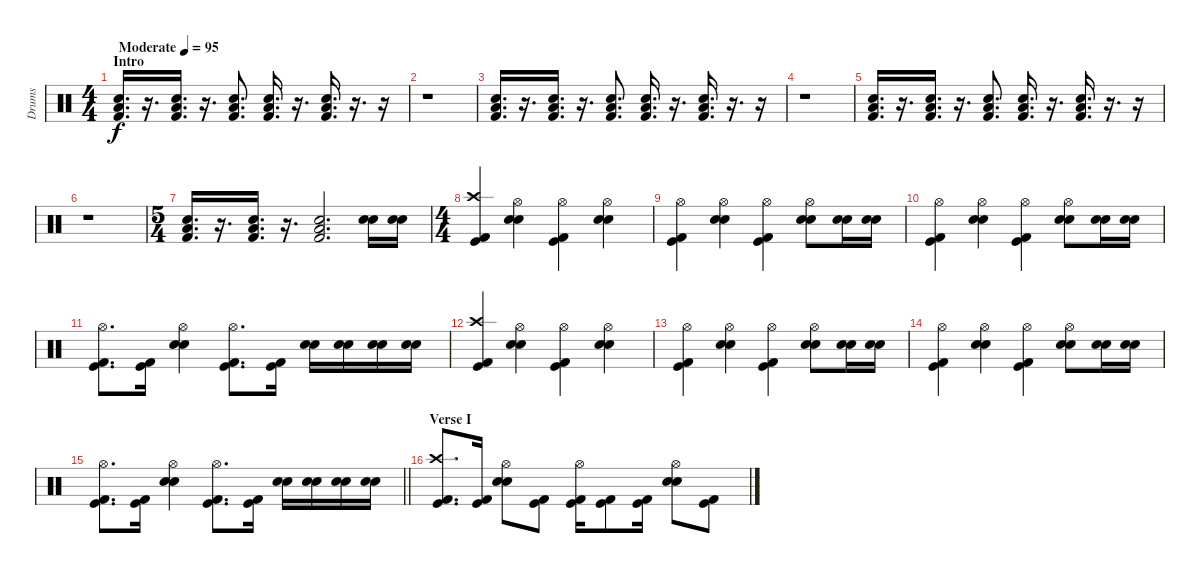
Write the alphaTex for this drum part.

\track ("Drums" "Drums") {instrument percussion}
\staff {score}
\articulation defaults
\ts (4 4)
\section ("" "Intro")
\tempo (95 "Moderate")
\clef neutral
\ks c
("Snare (hit) 2" "Low Tom (hit)" "Kick (hit) 2").16{d dy f} r.16{d} ("Snare (hit) 2" "Low Tom (hit)" "Kick (hit) 2").16{d} r.16{d} ("Snare (hit) 2" "Low Tom (hit)" "Kick (hit) 2").8{d} ("Snare (hit) 2" "Low Tom (hit)" "Kick (hit) 2").16{d} r.16{d} ("Snare (hit) 2" "Low Tom (hit)" "Kick (hit) 2").16{d} r.16{d} r.16 |
r.1 |
("Snare (hit) 2" "Low Tom (hit)" "Kick (hit) 2").16{d} r.16{d} ("Snare (hit) 2" "Low Tom (hit)" "Kick (hit) 2").16{d} r.16{d} ("Snare (hit) 2" "Low Tom (hit)" "Kick (hit) 2").8{d} ("Snare (hit) 2" "Low Tom (hit)" "Kick (hit) 2").16{d} r.16{d} ("Snare (hit) 2" "Low Tom (hit)" "Kick (hit) 2").16{d} r.16{d} r.16 |
r.1 |
("Snare (hit) 2" "Low Tom (hit)" "Kick (hit) 2").16{d} r.16{d} ("Snare (hit) 2" "Low Tom (hit)" "Kick (hit) 2").16{d} r.16{d} ("Snare (hit) 2" "Low Tom (hit)" "Kick (hit) 2").8{d} ("Snare (hit) 2" "Low Tom (hit)" "Kick (hit) 2").16{d} r.16{d} ("Snare (hit) 2" "Low Tom (hit)" "Kick (hit) 2").16{d} r.16{d} r.16 |
r.1 |
\ts (5 4)
("Snare (hit) 2" "Low Tom (hit)" "Kick (hit) 2").16{d} r.16{d} ("Snare (hit) 2" "Low Tom (hit)" "Kick (hit) 2").16{d} r.16{d} ("Snare (hit) 2" "Low Tom (hit)" "Kick (hit) 2").2{d} ("Snare (hit) 2" "Electric Snare (hit)").16 ("Snare (hit) 2" "Electric Snare (hit)").16 |
\ts (4 4)
("Crash high (hit)" "Kick (hit)" "Kick (hit) 2").4 ("Hi-Hat (open)" "Snare (hit) 2" "Electric Snare (hit)").4 ("Hi-Hat (open)" "Kick (hit)" "Kick (hit) 2").4 ("Hi-Hat (open)" "Snare (hit) 2" "Electric Snare (hit)").4 |
("Hi-Hat (open)" "Kick (hit)" "Kick (hit) 2").4 ("Hi-Hat (open)" "Snare (hit) 2" "Electric Snare (hit)").4 ("Hi-Hat (open)" "Kick (hit)" "Kick (hit) 2").4 ("Hi-Hat (open)" "Snare (hit) 2" "Electric Snare (hit)").8 ("Snare (hit) 2" "Electric Snare (hit)").16 ("Snare (hit) 2" "Electric Snare (hit)").16 |
("Hi-Hat (open)" "Kick (hit)" "Kick (hit) 2").4 ("Hi-Hat (open)" "Snare (hit) 2" "Electric Snare (hit)").4 ("Hi-Hat (open)" "Kick (hit)" "Kick (hit) 2").4 ("Hi-Hat (open)" "Snare (hit) 2" "Electric Snare (hit)").8 ("Snare (hit) 2" "Electric Snare (hit)").16 ("Snare (hit) 2" "Electric Snare (hit)").16 |
("Hi-Hat (open)" "Kick (hit)" "Kick (hit) 2").8{d} ("Kick (hit)" "Kick (hit) 2").16 ("Hi-Hat (open)" "Snare (hit) 2" "Electric Snare (hit)").4 ("Hi-Hat (open)" "Kick (hit)" "Kick (hit) 2").8{d} ("Kick (hit)" "Kick (hit) 2").16 ("Snare (hit) 2" "Electric Snare (hit)").16 ("Snare (hit) 2" "Electric Snare (hit)").16 ("Snare (hit) 2" "Electric Snare (hit)").16 ("Snare (hit) 2" "Electric Snare (hit)").16 |
("Crash high (hit)" "Kick (hit)" "Kick (hit) 2").4 ("Hi-Hat (open)" "Snare (hit) 2" "Electric Snare (hit)").4 ("Hi-Hat (open)" "Kick (hit)" "Kick (hit) 2").4 ("Hi-Hat (open)" "Snare (hit) 2" "Electric Snare (hit)").4 |
("Hi-Hat (open)" "Kick (hit)" "Kick (hit) 2").4 ("Hi-Hat (open)" "Snare (hit) 2" "Electric Snare (hit)").4 ("Hi-Hat (open)" "Kick (hit)" "Kick (hit) 2").4 ("Hi-Hat (open)" "Snare (hit) 2" "Electric Snare (hit)").8 ("Snare (hit) 2" "Electric Snare (hit)").16 ("Snare (hit) 2" "Electric Snare (hit)").16 |
("Hi-Hat (open)" "Kick (hit)" "Kick (hit) 2").4 ("Hi-Hat (open)" "Snare (hit) 2" "Electric Snare (hit)").4 ("Hi-Hat (open)" "Kick (hit)" "Kick (hit) 2").4 ("Hi-Hat (open)" "Snare (hit) 2" "Electric Snare (hit)").8 ("Snare (hit) 2" "Electric Snare (hit)").16 ("Snare (hit) 2" "Electric Snare (hit)").16 |
\barLineRight lightlight
("Hi-Hat (open)" "Kick (hit)" "Kick (hit) 2").8{d} ("Kick (hit)" "Kick (hit) 2").16 ("Hi-Hat (open)" "Snare (hit) 2" "Electric Snare (hit)").4 ("Hi-Hat (open)" "Kick (hit)" "Kick (hit) 2").8{d} ("Kick (hit)" "Kick (hit) 2").16 ("Snare (hit) 2" "Electric Snare (hit)").16 ("Snare (hit) 2" "Electric Snare (hit)").16 ("Snare (hit) 2" "Electric Snare (hit)").16 ("Snare (hit) 2" "Electric Snare (hit)").16 |
\section ("" "Verse I")
("Crash high (hit)" "Kick (hit)" "Kick (hit) 2").8{d} ("Kick (hit)" "Kick (hit) 2").16 ("Hi-Hat (open)" "Snare (hit) 2" "Electric Snare (hit)").8 ("Kick (hit)" "Kick (hit) 2").8 ("Hi-Hat (open)" "Kick (hit)" "Kick (hit) 2").16 ("Kick (hit)" "Kick (hit) 2").8 ("Kick (hit)" "Kick (hit) 2").16 ("Hi-Hat (open)" "Snare (hit) 2" "Electric Snare (hit)").8 ("Kick (hit)" "Kick (hit) 2").8
